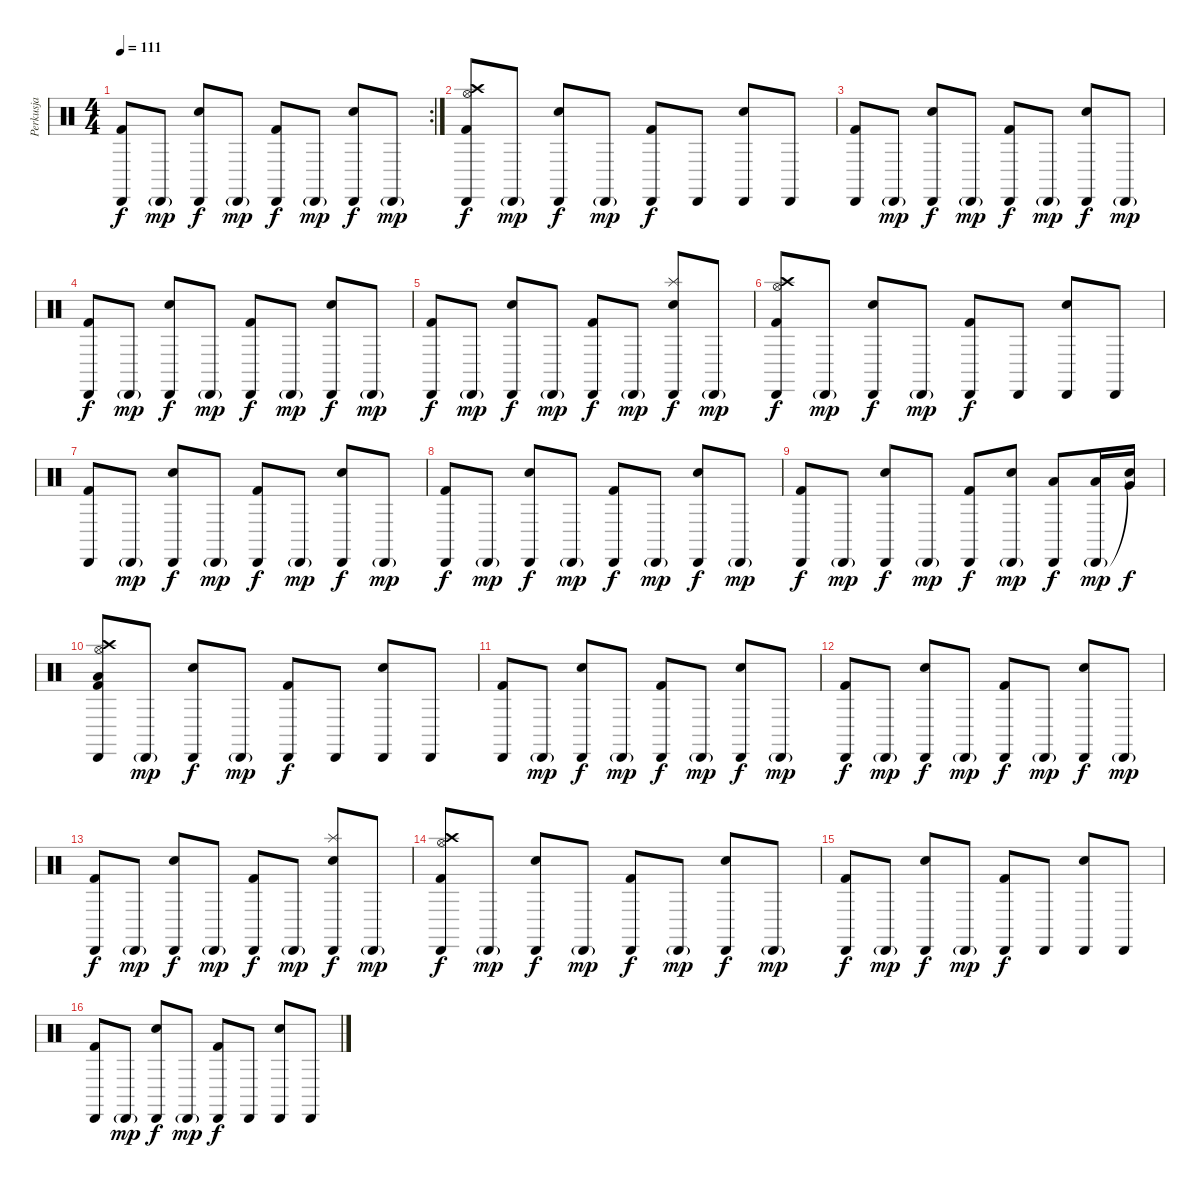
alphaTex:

\track ("Perkusja" "Perkusja") {instrument percussion}
\staff {score}
\articulation defaults
\rc 2
\ts (4 4)
\tempo 111
\clef neutral
\ks c
("Cabasa (hit)" "Kick (hit) 2").8{dy f} "Cabasa (hit)"{g}.8{dy mp} ("Cabasa (hit)" "Snare (hit) 2").8{dy f} "Cabasa (hit)"{g}.8{dy mp} ("Cabasa (hit)" "Kick (hit) 2").8{dy f} "Cabasa (hit)"{g}.8{dy mp} ("Cabasa (hit)" "Snare (hit) 2").8{dy f} "Cabasa (hit)"{g}.8{dy mp} |
("Cabasa (hit)" "Kick (hit) 2" "Hi-Hat (open)" "Crash high (hit)").8{dy f} "Cabasa (hit)"{g}.8{dy mp} ("Cabasa (hit)" "Snare (hit) 2").8{dy f} "Cabasa (hit)"{g}.8{dy mp} ("Cabasa (hit)" "Kick (hit) 2").8{dy f} "Cabasa (hit)".8 ("Cabasa (hit)" "Snare (hit) 2").8 "Cabasa (hit)".8 |
("Cabasa (hit)" "Kick (hit) 2").8 "Cabasa (hit)"{g}.8{dy mp} ("Cabasa (hit)" "Snare (hit) 2").8{dy f} "Cabasa (hit)"{g}.8{dy mp} ("Cabasa (hit)" "Kick (hit) 2").8{dy f} "Cabasa (hit)"{g}.8{dy mp} ("Cabasa (hit)" "Snare (hit) 2").8{dy f} "Cabasa (hit)"{g}.8{dy mp} |
("Cabasa (hit)" "Kick (hit) 2").8{dy f} "Cabasa (hit)"{g}.8{dy mp} ("Cabasa (hit)" "Snare (hit) 2").8{dy f} "Cabasa (hit)"{g}.8{dy mp} ("Cabasa (hit)" "Kick (hit) 2").8{dy f} "Cabasa (hit)"{g}.8{dy mp} ("Cabasa (hit)" "Snare (hit) 2").8{dy f} "Cabasa (hit)"{g}.8{dy mp} |
("Cabasa (hit)" "Kick (hit) 2").8{dy f} "Cabasa (hit)"{g}.8{dy mp} ("Cabasa (hit)" "Snare (hit) 2").8{dy f} "Cabasa (hit)"{g}.8{dy mp} ("Cabasa (hit)" "Kick (hit) 2").8{dy f} "Cabasa (hit)"{g}.8{dy mp} ("Cabasa (hit)" "Snare (hit) 2" "Splash (hit)").8{dy f} "Cabasa (hit)"{g}.8{dy mp} |
("Cabasa (hit)" "Kick (hit) 2" "Hi-Hat (open)" "Crash high (hit)").8{dy f} "Cabasa (hit)"{g}.8{dy mp} ("Cabasa (hit)" "Snare (hit) 2").8{dy f} "Cabasa (hit)"{g}.8{dy mp} ("Cabasa (hit)" "Kick (hit) 2").8{dy f} "Cabasa (hit)".8 ("Cabasa (hit)" "Snare (hit) 2").8 "Cabasa (hit)".8 |
("Cabasa (hit)" "Kick (hit) 2").8 "Cabasa (hit)"{g}.8{dy mp} ("Cabasa (hit)" "Snare (hit) 2").8{dy f} "Cabasa (hit)"{g}.8{dy mp} ("Cabasa (hit)" "Kick (hit) 2").8{dy f} "Cabasa (hit)"{g}.8{dy mp} ("Cabasa (hit)" "Snare (hit) 2").8{dy f} "Cabasa (hit)"{g}.8{dy mp} |
("Cabasa (hit)" "Kick (hit) 2").8{dy f} "Cabasa (hit)"{g}.8{dy mp} ("Cabasa (hit)" "Snare (hit) 2").8{dy f} "Cabasa (hit)"{g}.8{dy mp} ("Cabasa (hit)" "Kick (hit) 2").8{dy f} "Cabasa (hit)"{g}.8{dy mp} ("Cabasa (hit)" "Snare (hit) 2").8{dy f} "Cabasa (hit)"{g}.8{dy mp} |
("Cabasa (hit)" "Kick (hit) 2").8{dy f} "Cabasa (hit)"{g}.8{dy mp} ("Cabasa (hit)" "Snare (hit) 2").8{dy f} "Cabasa (hit)"{g}.8{dy mp} ("Cabasa (hit)" "Kick (hit) 2").8{dy f} ("Cabasa (hit)"{g} "Snare (hit) 2").8{dy mp} ("Cabasa (hit)" "Low Tom (hit)").8{dy f} ("Cabasa (hit)"{g} "Low Tom (hit)").16{dy mp} ("Snare (hit)"{t} "Very Low Tom (hit)").16{dy f} |
("Cabasa (hit)" "Kick (hit) 2" "Hi-Hat (open)" "Crash high (hit)" "Low Floor Tom (hit)").8 "Cabasa (hit)"{g}.8{dy mp} ("Cabasa (hit)" "Snare (hit) 2").8{dy f} "Cabasa (hit)"{g}.8{dy mp} ("Cabasa (hit)" "Kick (hit) 2").8{dy f} "Cabasa (hit)".8 ("Cabasa (hit)" "Snare (hit) 2").8 "Cabasa (hit)".8 |
("Cabasa (hit)" "Kick (hit) 2").8 "Cabasa (hit)"{g}.8{dy mp} ("Cabasa (hit)" "Snare (hit) 2").8{dy f} "Cabasa (hit)"{g}.8{dy mp} ("Cabasa (hit)" "Kick (hit) 2").8{dy f} "Cabasa (hit)"{g}.8{dy mp} ("Cabasa (hit)" "Snare (hit) 2").8{dy f} "Cabasa (hit)"{g}.8{dy mp} |
("Cabasa (hit)" "Kick (hit) 2").8{dy f} "Cabasa (hit)"{g}.8{dy mp} ("Cabasa (hit)" "Snare (hit) 2").8{dy f} "Cabasa (hit)"{g}.8{dy mp} ("Cabasa (hit)" "Kick (hit) 2").8{dy f} "Cabasa (hit)"{g}.8{dy mp} ("Cabasa (hit)" "Snare (hit) 2").8{dy f} "Cabasa (hit)"{g}.8{dy mp} |
("Cabasa (hit)" "Kick (hit) 2").8{dy f} "Cabasa (hit)"{g}.8{dy mp} ("Cabasa (hit)" "Snare (hit) 2").8{dy f} "Cabasa (hit)"{g}.8{dy mp} ("Cabasa (hit)" "Kick (hit) 2").8{dy f} "Cabasa (hit)"{g}.8{dy mp} ("Cabasa (hit)" "Snare (hit) 2" "Splash (hit)").8{dy f} "Cabasa (hit)"{g}.8{dy mp} |
("Cabasa (hit)" "Kick (hit) 2" "Hi-Hat (open)" "Crash high (hit)").8{dy f} "Cabasa (hit)"{g}.8{dy mp} ("Cabasa (hit)" "Snare (hit) 2").8{dy f} "Cabasa (hit)"{g}.8{dy mp} ("Cabasa (hit)" "Kick (hit) 2").8{dy f} "Cabasa (hit)"{g}.8{dy mp} ("Cabasa (hit)" "Snare (hit) 2").8{dy f} "Cabasa (hit)"{g}.8{dy mp} |
("Cabasa (hit)" "Kick (hit) 2").8{dy f} "Cabasa (hit)"{g}.8{dy mp} ("Cabasa (hit)" "Snare (hit) 2").8{dy f} "Cabasa (hit)"{g}.8{dy mp} ("Cabasa (hit)" "Kick (hit) 2").8{dy f} "Cabasa (hit)".8 ("Cabasa (hit)" "Snare (hit) 2").8 "Cabasa (hit)".8 |
("Cabasa (hit)" "Kick (hit) 2").8 "Cabasa (hit)"{g}.8{dy mp} ("Cabasa (hit)" "Snare (hit) 2").8{dy f} "Cabasa (hit)"{g}.8{dy mp} ("Cabasa (hit)" "Kick (hit) 2").8{dy f} "Cabasa (hit)".8 ("Cabasa (hit)" "Snare (hit) 2").8 "Cabasa (hit)".8
